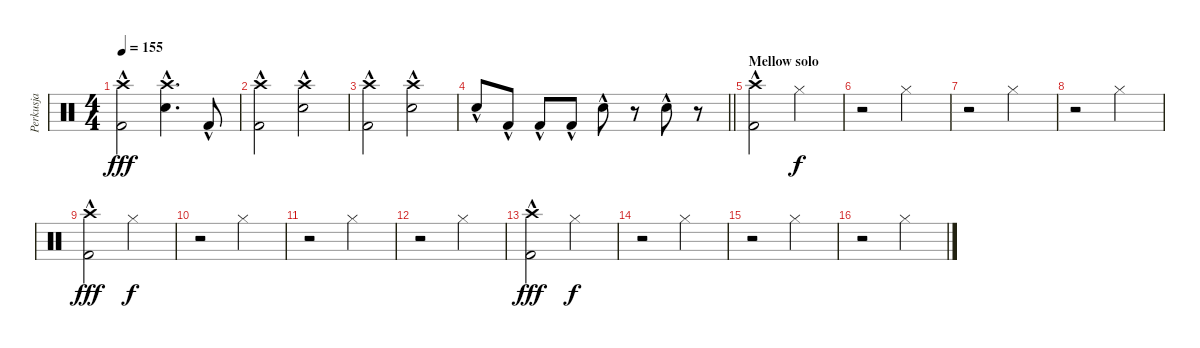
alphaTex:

\track ("Perkusja" "Perkusja") {instrument percussion}
\staff {score}
\articulation defaults
\ts (4 4)
\tempo 155
\clef neutral
\ks c
("Crash high (hit)" "Kick (hit) 2"{hac}).2{dy fff} ("Crash high (hit)" "Electric Snare (hit)"{hac}).4{d} "Kick (hit) 2"{hac}.8 |
("Crash high (hit)" "Kick (hit) 2"{hac}).2 ("Crash high (hit)" "Electric Snare (hit)"{hac}).2 |
("Crash high (hit)" "Kick (hit) 2"{hac}).2 ("Crash high (hit)" "Electric Snare (hit)"{hac}).2 |
\barLineRight lightlight "Electric Snare (hit)"{hac}.8 "Kick (hit) 2"{hac}.8 "Kick (hit) 2"{hac}.8 "Kick (hit) 2"{hac}.8 "Electric Snare (hit)"{hac}.8
r.8 "Electric Snare (hit)"{hac}.8 r.8 |
\section ("" "Mellow solo")
("Crash high (hit)" "Kick (hit) 2"{hac}).2 "Hi-Hat (closed)".2{dy f} |
r.2 "Hi-Hat (closed)".2 |
r.2 "Hi-Hat (closed)".2 |
r.2 "Hi-Hat (closed)".2 |
("Crash high (hit)" "Kick (hit) 2"{hac}).2{dy fff} "Hi-Hat (closed)".2{dy f} |
r.2 "Hi-Hat (closed)".2 |
r.2 "Hi-Hat (closed)".2 |
r.2 "Hi-Hat (closed)".2 |
("Crash high (hit)" "Kick (hit) 2"{hac}).2{dy fff} "Hi-Hat (closed)".2{dy f} |
r.2 "Hi-Hat (closed)".2 |
r.2 "Hi-Hat (closed)".2 |
r.2 "Hi-Hat (closed)".2
